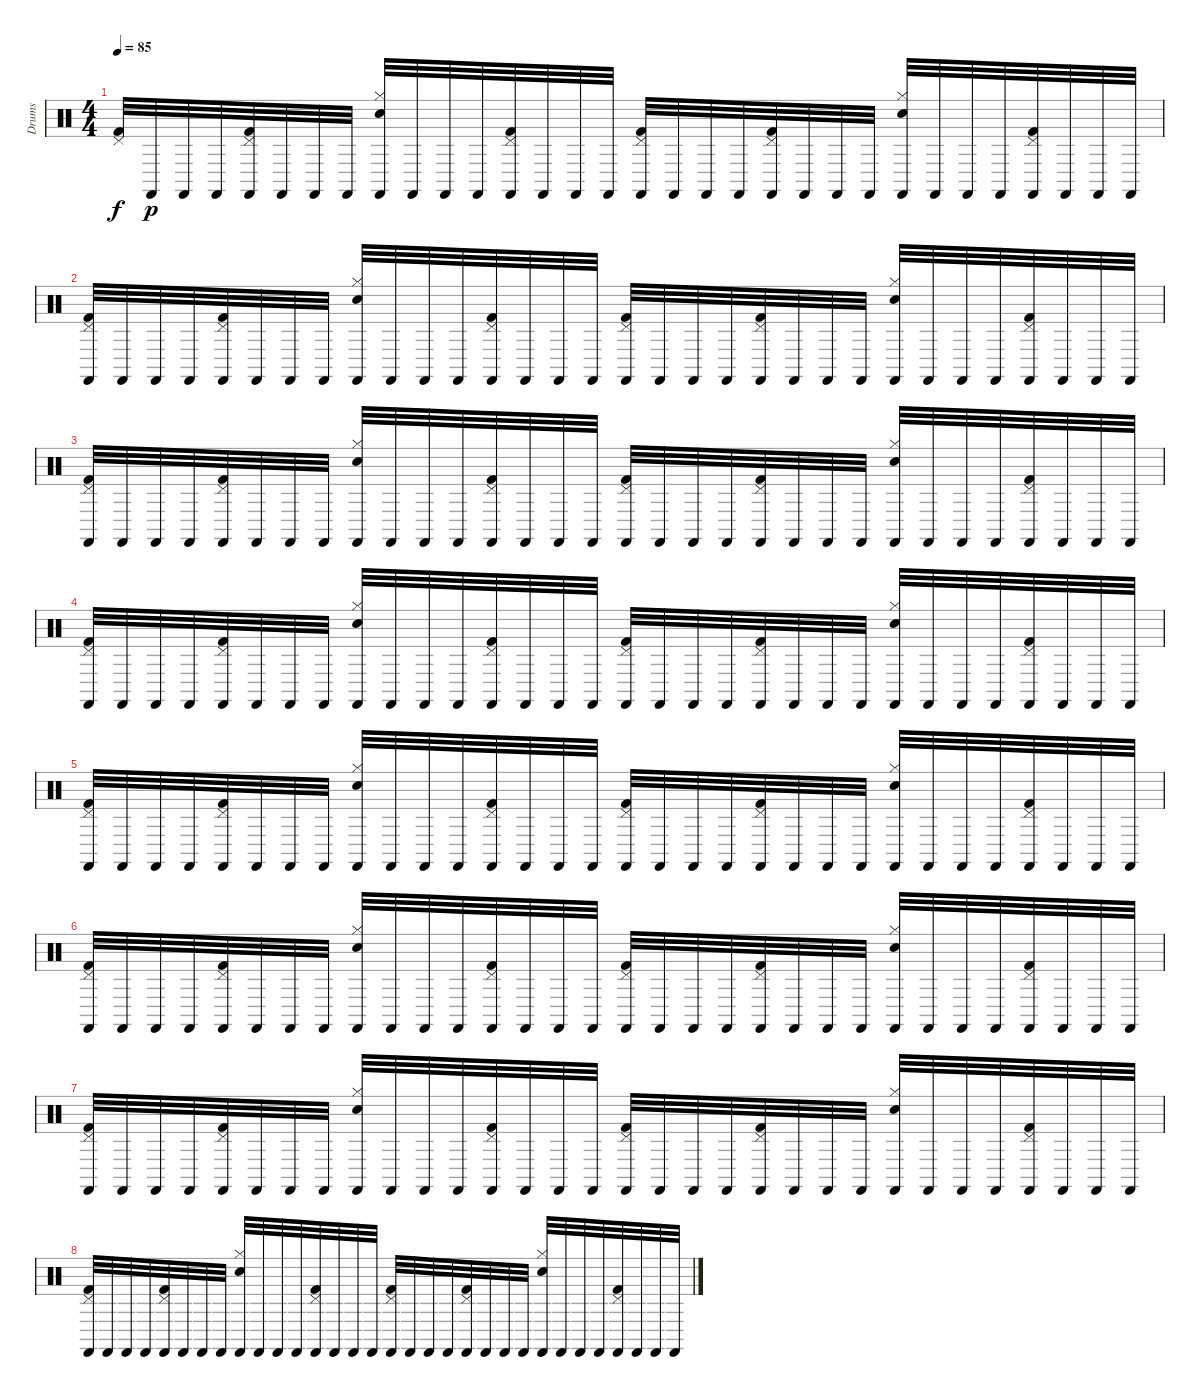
\track ("Drums" "Drums") {instrument percussion}
\staff {score}
\articulation defaults
\ts (4 4)
\tempo 85
\clef neutral
\ks c
("Pedal Hi-Hat (hit)" "Kick (hit) 2").32{dy f} "Castanets (hit)".32{dy p} "Castanets (hit)".32 "Castanets (hit)".32 ("Castanets (hit)" "Pedal Hi-Hat (hit)" "Kick (hit) 2").32 "Castanets (hit)".32 "Castanets (hit)".32 "Castanets (hit)".32 ("Castanets (hit)" "Hi-Hat (closed)" "Electric Snare (hit)").32 "Castanets (hit)".32 "Castanets (hit)".32 "Castanets (hit)".32 ("Castanets (hit)" "Pedal Hi-Hat (hit)" "Kick (hit) 2").32 "Castanets (hit)".32 "Castanets (hit)".32 "Castanets (hit)".32 ("Castanets (hit)" "Pedal Hi-Hat (hit)" "Kick (hit) 2").32 "Castanets (hit)".32 "Castanets (hit)".32 "Castanets (hit)".32 ("Castanets (hit)" "Pedal Hi-Hat (hit)" "Kick (hit) 2").32 "Castanets (hit)".32 "Castanets (hit)".32 "Castanets (hit)".32 ("Castanets (hit)" "Hi-Hat (closed)" "Electric Snare (hit)").32 "Castanets (hit)".32 "Castanets (hit)".32 "Castanets (hit)".32 ("Castanets (hit)" "Pedal Hi-Hat (hit)" "Kick (hit) 2").32 "Castanets (hit)".32 "Castanets (hit)".32 "Castanets (hit)".32 |
("Castanets (hit)" "Pedal Hi-Hat (hit)" "Kick (hit) 2").32 "Castanets (hit)".32 "Castanets (hit)".32 "Castanets (hit)".32 ("Castanets (hit)" "Pedal Hi-Hat (hit)" "Kick (hit) 2").32 "Castanets (hit)".32 "Castanets (hit)".32 "Castanets (hit)".32 ("Castanets (hit)" "Hi-Hat (closed)" "Electric Snare (hit)").32 "Castanets (hit)".32 "Castanets (hit)".32 "Castanets (hit)".32 ("Castanets (hit)" "Pedal Hi-Hat (hit)" "Kick (hit) 2").32 "Castanets (hit)".32 "Castanets (hit)".32 "Castanets (hit)".32 ("Castanets (hit)" "Pedal Hi-Hat (hit)" "Kick (hit) 2").32 "Castanets (hit)".32 "Castanets (hit)".32 "Castanets (hit)".32 ("Castanets (hit)" "Pedal Hi-Hat (hit)" "Kick (hit) 2").32 "Castanets (hit)".32 "Castanets (hit)".32 "Castanets (hit)".32 ("Castanets (hit)" "Hi-Hat (closed)" "Electric Snare (hit)").32 "Castanets (hit)".32 "Castanets (hit)".32 "Castanets (hit)".32 ("Castanets (hit)" "Pedal Hi-Hat (hit)" "Kick (hit) 2").32 "Castanets (hit)".32 "Castanets (hit)".32 "Castanets (hit)".32 |
("Castanets (hit)" "Pedal Hi-Hat (hit)" "Kick (hit) 2").32 "Castanets (hit)".32 "Castanets (hit)".32 "Castanets (hit)".32 ("Castanets (hit)" "Pedal Hi-Hat (hit)" "Kick (hit) 2").32 "Castanets (hit)".32 "Castanets (hit)".32 "Castanets (hit)".32 ("Castanets (hit)" "Hi-Hat (closed)" "Electric Snare (hit)").32 "Castanets (hit)".32 "Castanets (hit)".32 "Castanets (hit)".32 ("Castanets (hit)" "Pedal Hi-Hat (hit)" "Kick (hit) 2").32 "Castanets (hit)".32 "Castanets (hit)".32 "Castanets (hit)".32 ("Castanets (hit)" "Pedal Hi-Hat (hit)" "Kick (hit) 2").32 "Castanets (hit)".32 "Castanets (hit)".32 "Castanets (hit)".32 ("Castanets (hit)" "Pedal Hi-Hat (hit)" "Kick (hit) 2").32 "Castanets (hit)".32 "Castanets (hit)".32 "Castanets (hit)".32 ("Castanets (hit)" "Hi-Hat (closed)" "Electric Snare (hit)").32 "Castanets (hit)".32 "Castanets (hit)".32 "Castanets (hit)".32 ("Castanets (hit)" "Pedal Hi-Hat (hit)" "Kick (hit) 2").32 "Castanets (hit)".32 "Castanets (hit)".32 "Castanets (hit)".32 |
("Castanets (hit)" "Pedal Hi-Hat (hit)" "Kick (hit) 2").32 "Castanets (hit)".32 "Castanets (hit)".32 "Castanets (hit)".32 ("Castanets (hit)" "Pedal Hi-Hat (hit)" "Kick (hit) 2").32 "Castanets (hit)".32 "Castanets (hit)".32 "Castanets (hit)".32 ("Castanets (hit)" "Hi-Hat (closed)" "Electric Snare (hit)").32 "Castanets (hit)".32 "Castanets (hit)".32 "Castanets (hit)".32 ("Castanets (hit)" "Pedal Hi-Hat (hit)" "Kick (hit) 2").32 "Castanets (hit)".32 "Castanets (hit)".32 "Castanets (hit)".32 ("Castanets (hit)" "Pedal Hi-Hat (hit)" "Kick (hit) 2").32 "Castanets (hit)".32 "Castanets (hit)".32 "Castanets (hit)".32 ("Castanets (hit)" "Pedal Hi-Hat (hit)" "Kick (hit) 2").32 "Castanets (hit)".32 "Castanets (hit)".32 "Castanets (hit)".32 ("Castanets (hit)" "Hi-Hat (closed)" "Electric Snare (hit)").32 "Castanets (hit)".32 "Castanets (hit)".32 "Castanets (hit)".32 ("Castanets (hit)" "Pedal Hi-Hat (hit)" "Kick (hit) 2").32 "Castanets (hit)".32 "Castanets (hit)".32 "Castanets (hit)".32 |
("Castanets (hit)" "Pedal Hi-Hat (hit)" "Kick (hit) 2").32 "Castanets (hit)".32 "Castanets (hit)".32 "Castanets (hit)".32 ("Castanets (hit)" "Pedal Hi-Hat (hit)" "Kick (hit) 2").32 "Castanets (hit)".32 "Castanets (hit)".32 "Castanets (hit)".32 ("Castanets (hit)" "Hi-Hat (closed)" "Electric Snare (hit)").32 "Castanets (hit)".32 "Castanets (hit)".32 "Castanets (hit)".32 ("Castanets (hit)" "Pedal Hi-Hat (hit)" "Kick (hit) 2").32 "Castanets (hit)".32 "Castanets (hit)".32 "Castanets (hit)".32 ("Castanets (hit)" "Pedal Hi-Hat (hit)" "Kick (hit) 2").32 "Castanets (hit)".32 "Castanets (hit)".32 "Castanets (hit)".32 ("Castanets (hit)" "Pedal Hi-Hat (hit)" "Kick (hit) 2").32 "Castanets (hit)".32 "Castanets (hit)".32 "Castanets (hit)".32 ("Castanets (hit)" "Hi-Hat (closed)" "Electric Snare (hit)").32 "Castanets (hit)".32 "Castanets (hit)".32 "Castanets (hit)".32 ("Castanets (hit)" "Pedal Hi-Hat (hit)" "Kick (hit) 2").32 "Castanets (hit)".32 "Castanets (hit)".32 "Castanets (hit)".32 |
("Castanets (hit)" "Pedal Hi-Hat (hit)" "Kick (hit) 2").32 "Castanets (hit)".32 "Castanets (hit)".32 "Castanets (hit)".32 ("Castanets (hit)" "Pedal Hi-Hat (hit)" "Kick (hit) 2").32 "Castanets (hit)".32 "Castanets (hit)".32 "Castanets (hit)".32 ("Castanets (hit)" "Hi-Hat (closed)" "Electric Snare (hit)").32 "Castanets (hit)".32 "Castanets (hit)".32 "Castanets (hit)".32 ("Castanets (hit)" "Pedal Hi-Hat (hit)" "Kick (hit) 2").32 "Castanets (hit)".32 "Castanets (hit)".32 "Castanets (hit)".32 ("Castanets (hit)" "Pedal Hi-Hat (hit)" "Kick (hit) 2").32 "Castanets (hit)".32 "Castanets (hit)".32 "Castanets (hit)".32 ("Castanets (hit)" "Pedal Hi-Hat (hit)" "Kick (hit) 2").32 "Castanets (hit)".32 "Castanets (hit)".32 "Castanets (hit)".32 ("Castanets (hit)" "Hi-Hat (closed)" "Electric Snare (hit)").32 "Castanets (hit)".32 "Castanets (hit)".32 "Castanets (hit)".32 ("Castanets (hit)" "Pedal Hi-Hat (hit)" "Kick (hit) 2").32 "Castanets (hit)".32 "Castanets (hit)".32 "Castanets (hit)".32 |
("Castanets (hit)" "Pedal Hi-Hat (hit)" "Kick (hit) 2").32 "Castanets (hit)".32 "Castanets (hit)".32 "Castanets (hit)".32 ("Castanets (hit)" "Pedal Hi-Hat (hit)" "Kick (hit) 2").32 "Castanets (hit)".32 "Castanets (hit)".32 "Castanets (hit)".32 ("Castanets (hit)" "Hi-Hat (closed)" "Electric Snare (hit)").32 "Castanets (hit)".32 "Castanets (hit)".32 "Castanets (hit)".32 ("Castanets (hit)" "Pedal Hi-Hat (hit)" "Kick (hit) 2").32 "Castanets (hit)".32 "Castanets (hit)".32 "Castanets (hit)".32 ("Castanets (hit)" "Pedal Hi-Hat (hit)" "Kick (hit) 2").32 "Castanets (hit)".32 "Castanets (hit)".32 "Castanets (hit)".32 ("Castanets (hit)" "Pedal Hi-Hat (hit)" "Kick (hit) 2").32 "Castanets (hit)".32 "Castanets (hit)".32 "Castanets (hit)".32 ("Castanets (hit)" "Hi-Hat (closed)" "Electric Snare (hit)").32 "Castanets (hit)".32 "Castanets (hit)".32 "Castanets (hit)".32 ("Castanets (hit)" "Pedal Hi-Hat (hit)" "Kick (hit) 2").32 "Castanets (hit)".32 "Castanets (hit)".32 "Castanets (hit)".32 |
("Castanets (hit)" "Pedal Hi-Hat (hit)" "Kick (hit) 2").32 "Castanets (hit)".32 "Castanets (hit)".32 "Castanets (hit)".32 ("Castanets (hit)" "Pedal Hi-Hat (hit)" "Kick (hit) 2").32 "Castanets (hit)".32 "Castanets (hit)".32 "Castanets (hit)".32 ("Castanets (hit)" "Hi-Hat (closed)" "Electric Snare (hit)").32 "Castanets (hit)".32 "Castanets (hit)".32 "Castanets (hit)".32 ("Castanets (hit)" "Pedal Hi-Hat (hit)" "Kick (hit) 2").32 "Castanets (hit)".32 "Castanets (hit)".32 "Castanets (hit)".32 ("Castanets (hit)" "Pedal Hi-Hat (hit)" "Kick (hit) 2").32 "Castanets (hit)".32 "Castanets (hit)".32 "Castanets (hit)".32 ("Castanets (hit)" "Pedal Hi-Hat (hit)" "Kick (hit) 2").32 "Castanets (hit)".32 "Castanets (hit)".32 "Castanets (hit)".32 ("Castanets (hit)" "Hi-Hat (closed)" "Electric Snare (hit)").32 "Castanets (hit)".32 "Castanets (hit)".32 "Castanets (hit)".32 ("Castanets (hit)" "Pedal Hi-Hat (hit)" "Kick (hit) 2").32 "Castanets (hit)".32 "Castanets (hit)".32 "Castanets (hit)".32
